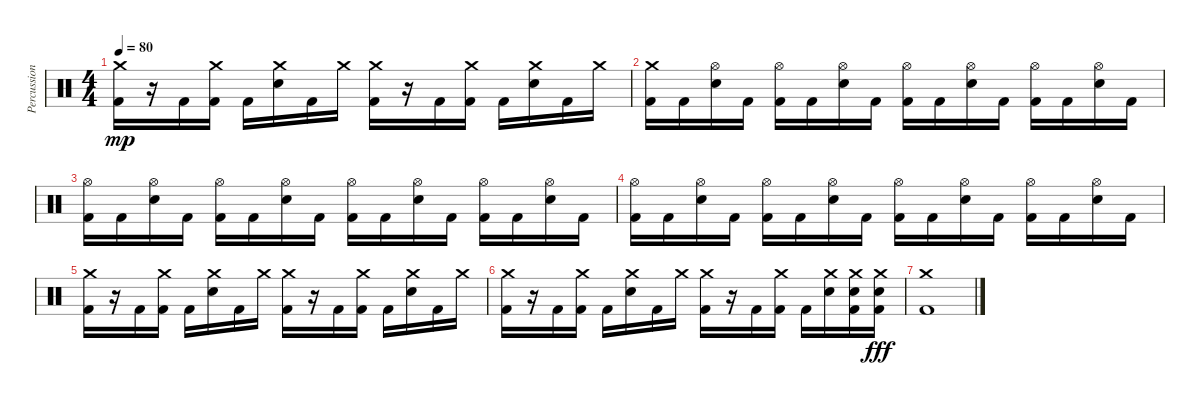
\track ("Percussion" "Percussion") {instrument percussion}
\staff {score}
\articulation defaults
\ts (4 4)
\tempo 80
\clef neutral
\ks c
("Crash medium (hit)" "Kick (hit) 2").16{dy mp} r.16 "Kick (hit) 2".16 ("Crash medium (hit)" "Kick (hit) 2").16 "Kick (hit) 2".16 ("Crash medium (hit)" "Electric Snare (hit)").16 "Kick (hit) 2".16 "Crash medium (hit)".16 ("Crash medium (hit)" "Kick (hit) 2").16 r.16 "Kick (hit) 2".16 ("Crash medium (hit)" "Kick (hit) 2").16 "Kick (hit) 2".16 ("Crash medium (hit)" "Electric Snare (hit)").16 "Kick (hit) 2".16 "Crash medium (hit)".16 |
("Crash medium (hit)" "Kick (hit) 2").16 "Kick (hit) 2".16 ("Hi-Hat (open)" "Electric Snare (hit)").16 "Kick (hit) 2".16 ("Hi-Hat (open)" "Kick (hit) 2").16 "Kick (hit) 2".16 ("Hi-Hat (open)" "Electric Snare (hit)").16 "Kick (hit) 2".16 ("Hi-Hat (open)" "Kick (hit) 2").16 "Kick (hit) 2".16 ("Hi-Hat (open)" "Electric Snare (hit)").16 "Kick (hit) 2".16 ("Hi-Hat (open)" "Kick (hit) 2").16 "Kick (hit) 2".16 ("Hi-Hat (open)" "Electric Snare (hit)").16 "Kick (hit) 2".16 |
("Hi-Hat (open)" "Kick (hit) 2").16 "Kick (hit) 2".16 ("Hi-Hat (open)" "Electric Snare (hit)").16 "Kick (hit) 2".16 ("Hi-Hat (open)" "Kick (hit) 2").16 "Kick (hit) 2".16 ("Hi-Hat (open)" "Electric Snare (hit)").16 "Kick (hit) 2".16 ("Hi-Hat (open)" "Kick (hit) 2").16 "Kick (hit) 2".16 ("Hi-Hat (open)" "Electric Snare (hit)").16 "Kick (hit) 2".16 ("Hi-Hat (open)" "Kick (hit) 2").16 "Kick (hit) 2".16 ("Hi-Hat (open)" "Electric Snare (hit)").16 "Kick (hit) 2".16 |
("Hi-Hat (open)" "Kick (hit) 2").16 "Kick (hit) 2".16 ("Hi-Hat (open)" "Electric Snare (hit)").16 "Kick (hit) 2".16 ("Hi-Hat (open)" "Kick (hit) 2").16 "Kick (hit) 2".16 ("Hi-Hat (open)" "Electric Snare (hit)").16 "Kick (hit) 2".16 ("Hi-Hat (open)" "Kick (hit) 2").16 "Kick (hit) 2".16 ("Hi-Hat (open)" "Electric Snare (hit)").16 "Kick (hit) 2".16 ("Hi-Hat (open)" "Kick (hit) 2").16 "Kick (hit) 2".16 ("Hi-Hat (open)" "Electric Snare (hit)").16 "Kick (hit) 2".16 |
("Crash medium (hit)" "Kick (hit) 2").16 r.16 "Kick (hit) 2".16 ("Crash medium (hit)" "Kick (hit) 2").16 "Kick (hit) 2".16 ("Crash medium (hit)" "Electric Snare (hit)").16 "Kick (hit) 2".16 "Crash medium (hit)".16 ("Crash medium (hit)" "Kick (hit) 2").16 r.16 "Kick (hit) 2".16 ("Crash medium (hit)" "Kick (hit) 2").16 "Kick (hit) 2".16 ("Crash medium (hit)" "Electric Snare (hit)").16 "Kick (hit) 2".16 "Crash medium (hit)".16 |
("Crash medium (hit)" "Kick (hit) 2").16 r.16 "Kick (hit) 2".16 ("Crash medium (hit)" "Kick (hit) 2").16 "Kick (hit) 2".16 ("Crash medium (hit)" "Electric Snare (hit)").16 "Kick (hit) 2".16 "Crash medium (hit)".16 ("Crash medium (hit)" "Kick (hit) 2").16 r.16 "Kick (hit) 2".16 ("Crash medium (hit)" "Kick (hit) 2").16 "Kick (hit) 2".16 ("Crash medium (hit)" "Electric Snare (hit)").16 ("Crash medium (hit)" "Electric Snare (hit)" "Kick (hit) 2").16 ("Crash medium (hit)" "Electric Snare (hit)" "Kick (hit) 2").16{dy fff} |
("Crash medium (hit)" "Kick (hit) 2").1
